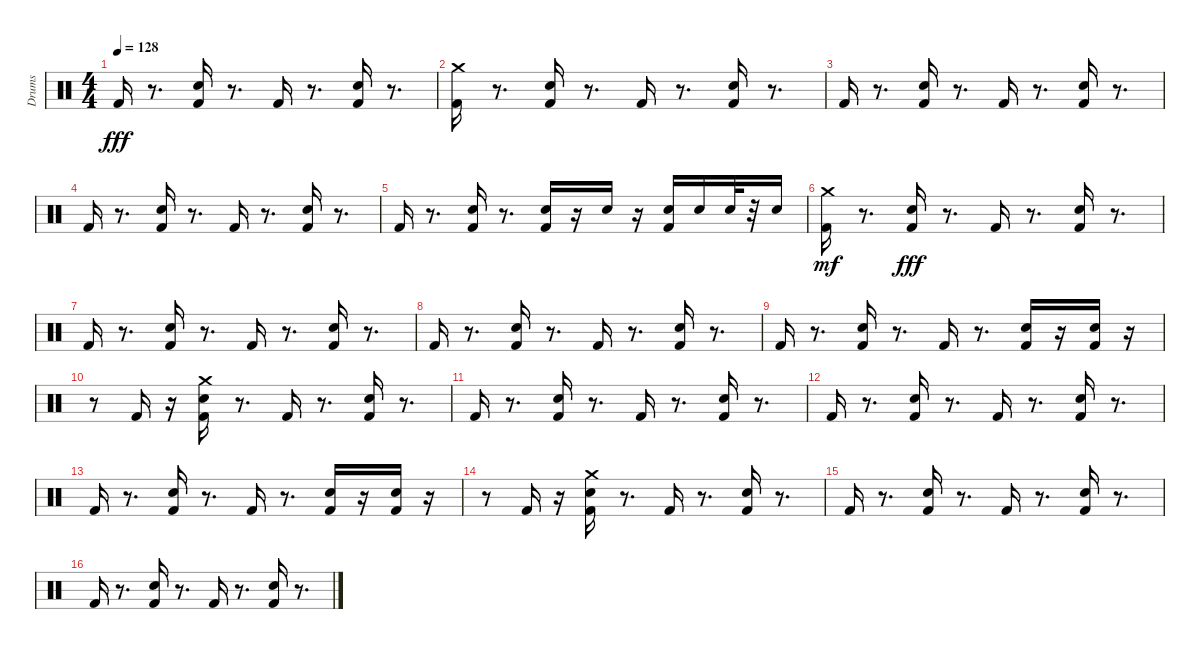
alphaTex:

\track ("Drums" "Drums") {instrument percussion}
\staff {score}
\articulation defaults
\ts (4 4)
\tempo 128
\clef neutral
\ks c "Kick (hit) 2".16{dy fff}
r.8{d} ("Kick (hit) 2" "Electric Snare (hit)").16 r.8{d} "Kick (hit) 2".16 r.8{d} ("Kick (hit) 2" "Electric Snare (hit)").16 r.8{d} |
("Crash medium (hit)" "Kick (hit) 2").16 r.8{d} ("Kick (hit) 2" "Electric Snare (hit)").16 r.8{d} "Kick (hit) 2".16 r.8{d} ("Kick (hit) 2" "Electric Snare (hit)").16 r.8{d} |
"Kick (hit) 2".16 r.8{d} ("Kick (hit) 2" "Electric Snare (hit)").16 r.8{d} "Kick (hit) 2".16 r.8{d} ("Kick (hit) 2" "Electric Snare (hit)").16 r.8{d} |
"Kick (hit) 2".16 r.8{d} ("Kick (hit) 2" "Electric Snare (hit)").16 r.8{d} "Kick (hit) 2".16 r.8{d} ("Kick (hit) 2" "Electric Snare (hit)").16 r.8{d} |
"Kick (hit) 2".16 r.8{d} ("Kick (hit) 2" "Electric Snare (hit)").16 r.8{d} ("Kick (hit) 2" "Electric Snare (hit)").16 r.16 "Electric Snare (hit)".16 r.16 ("Kick (hit) 2" "Electric Snare (hit)").16 "Electric Snare (hit)".16 "Electric Snare (hit)".32 r.32 "Electric Snare (hit)".16 |
("Kick (hit) 2" "Crash medium (hit)").16{dy mf} r.8{d} ("Kick (hit) 2" "Electric Snare (hit)").16{dy fff} r.8{d} "Kick (hit) 2".16 r.8{d} ("Kick (hit) 2" "Electric Snare (hit)").16 r.8{d} |
"Kick (hit) 2".16 r.8{d} ("Kick (hit) 2" "Electric Snare (hit)").16 r.8{d} "Kick (hit) 2".16 r.8{d} ("Kick (hit) 2" "Electric Snare (hit)").16 r.8{d} |
"Kick (hit) 2".16 r.8{d} ("Kick (hit) 2" "Electric Snare (hit)").16 r.8{d} "Kick (hit) 2".16 r.8{d} ("Kick (hit) 2" "Electric Snare (hit)").16 r.8{d} |
"Kick (hit) 2".16 r.8{d} ("Kick (hit) 2" "Electric Snare (hit)").16 r.8{d} "Kick (hit) 2".16 r.8{d} ("Kick (hit) 2" "Electric Snare (hit)").16 r.16 ("Kick (hit) 2" "Electric Snare (hit)").16 r.16 |
r.8 "Kick (hit) 2".16 r.16 ("Crash medium (hit)" "Kick (hit) 2" "Electric Snare (hit)").16 r.8{d} "Kick (hit) 2".16 r.8{d} ("Kick (hit) 2" "Electric Snare (hit)").16 r.8{d} |
"Kick (hit) 2".16 r.8{d} ("Kick (hit) 2" "Electric Snare (hit)").16 r.8{d} "Kick (hit) 2".16 r.8{d} ("Kick (hit) 2" "Electric Snare (hit)").16 r.8{d} |
"Kick (hit) 2".16 r.8{d} ("Kick (hit) 2" "Electric Snare (hit)").16 r.8{d} "Kick (hit) 2".16 r.8{d} ("Kick (hit) 2" "Electric Snare (hit)").16 r.8{d} |
"Kick (hit) 2".16 r.8{d} ("Kick (hit) 2" "Electric Snare (hit)").16 r.8{d} "Kick (hit) 2".16 r.8{d} ("Kick (hit) 2" "Electric Snare (hit)").16 r.16 ("Kick (hit) 2" "Electric Snare (hit)").16 r.16 |
r.8 "Kick (hit) 2".16 r.16 ("Crash medium (hit)" "Kick (hit) 2" "Electric Snare (hit)").16 r.8{d} "Kick (hit) 2".16 r.8{d} ("Kick (hit) 2" "Electric Snare (hit)").16 r.8{d} |
"Kick (hit) 2".16 r.8{d} ("Kick (hit) 2" "Electric Snare (hit)").16 r.8{d} "Kick (hit) 2".16 r.8{d} ("Kick (hit) 2" "Electric Snare (hit)").16 r.8{d} |
"Kick (hit) 2".16 r.8{d} ("Kick (hit) 2" "Electric Snare (hit)").16 r.8{d} "Kick (hit) 2".16 r.8{d} ("Kick (hit) 2" "Electric Snare (hit)").16 r.8{d}
